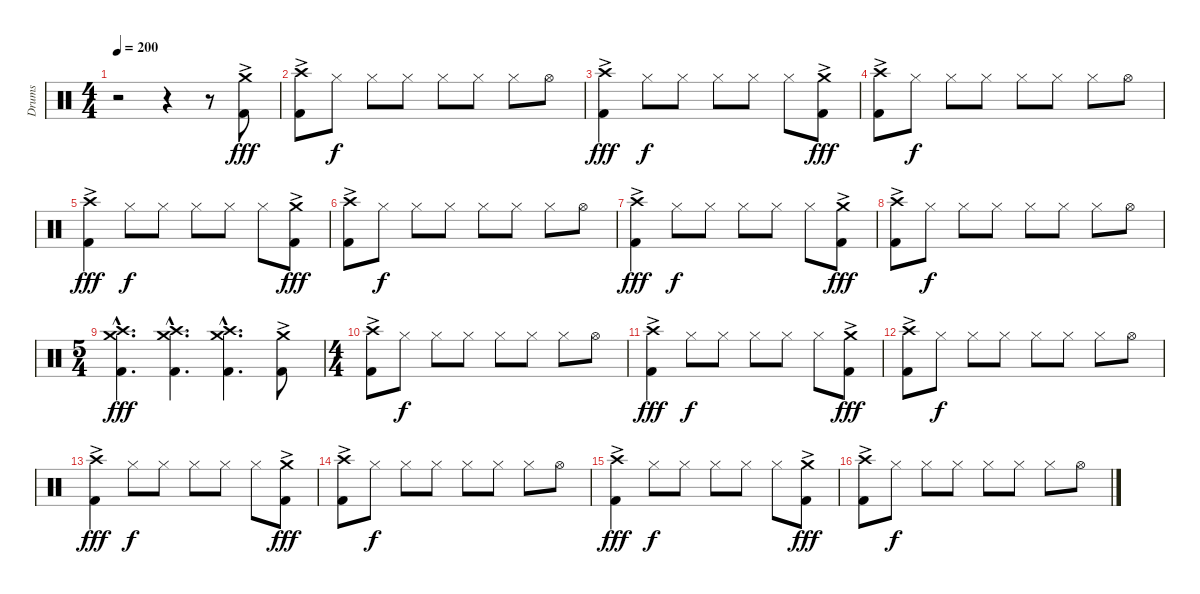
\track ("Drums" "Drums") {instrument percussion}
\staff {score}
\articulation defaults
\ts (4 4)
\tempo 200
\clef neutral
\ks c
r.2{dy fff} r.4 r.8 ("Crash medium (hit)" "Kick (hit) 2"{ac}).8 |
("Crash high (hit)" "Kick (hit) 2"{ac}).8 "Hi-Hat (closed)".8{dy f} "Hi-Hat (closed)".8 "Hi-Hat (closed)".8 "Hi-Hat (closed)".8 "Hi-Hat (closed)".8 "Hi-Hat (closed)".8 "Hi-Hat (open)".8 |
("Crash high (hit)" "Kick (hit) 2"{ac}).4{dy fff} "Hi-Hat (closed)".8{dy f} "Hi-Hat (closed)".8 "Hi-Hat (closed)".8 "Hi-Hat (closed)".8 "Hi-Hat (closed)".8 ("Crash medium (hit)" "Kick (hit) 2"{ac}).8{dy fff} |
("Crash high (hit)" "Kick (hit) 2"{ac}).8 "Hi-Hat (closed)".8{dy f} "Hi-Hat (closed)".8 "Hi-Hat (closed)".8 "Hi-Hat (closed)".8 "Hi-Hat (closed)".8 "Hi-Hat (closed)".8 "Hi-Hat (open)".8 |
("Crash high (hit)" "Kick (hit) 2"{ac}).4{dy fff} "Hi-Hat (closed)".8{dy f} "Hi-Hat (closed)".8 "Hi-Hat (closed)".8 "Hi-Hat (closed)".8 "Hi-Hat (closed)".8 ("Crash medium (hit)" "Kick (hit) 2"{ac}).8{dy fff} |
("Crash high (hit)" "Kick (hit) 2"{ac}).8 "Hi-Hat (closed)".8{dy f} "Hi-Hat (closed)".8 "Hi-Hat (closed)".8 "Hi-Hat (closed)".8 "Hi-Hat (closed)".8 "Hi-Hat (closed)".8 "Hi-Hat (open)".8 |
("Crash high (hit)" "Kick (hit) 2"{ac}).4{dy fff} "Hi-Hat (closed)".8{dy f} "Hi-Hat (closed)".8 "Hi-Hat (closed)".8 "Hi-Hat (closed)".8 "Hi-Hat (closed)".8 ("Crash medium (hit)" "Kick (hit) 2"{ac}).8{dy fff} |
("Crash high (hit)" "Kick (hit) 2"{ac}).8 "Hi-Hat (closed)".8{dy f} "Hi-Hat (closed)".8 "Hi-Hat (closed)".8 "Hi-Hat (closed)".8 "Hi-Hat (closed)".8 "Hi-Hat (closed)".8 "Hi-Hat (open)".8 |
\ts (5 4)
("Crash high (hit)"{hac} "Crash medium (hit)"{hac} "Kick (hit) 2"{hac}).4{d dy fff} ("Crash high (hit)"{hac} "Crash medium (hit)"{hac} "Kick (hit) 2"{hac}).4{d} ("Crash high (hit)"{hac} "Crash medium (hit)"{hac} "Kick (hit) 2"{hac}).4{d} ("Crash medium (hit)" "Kick (hit) 2"{ac}).8 |
\ts (4 4)
("Crash high (hit)" "Kick (hit) 2"{ac}).8 "Hi-Hat (closed)".8{dy f} "Hi-Hat (closed)".8 "Hi-Hat (closed)".8 "Hi-Hat (closed)".8 "Hi-Hat (closed)".8 "Hi-Hat (closed)".8 "Hi-Hat (open)".8 |
("Crash high (hit)" "Kick (hit) 2"{ac}).4{dy fff} "Hi-Hat (closed)".8{dy f} "Hi-Hat (closed)".8 "Hi-Hat (closed)".8 "Hi-Hat (closed)".8 "Hi-Hat (closed)".8 ("Crash medium (hit)" "Kick (hit) 2"{ac}).8{dy fff} |
("Crash high (hit)" "Kick (hit) 2"{ac}).8 "Hi-Hat (closed)".8{dy f} "Hi-Hat (closed)".8 "Hi-Hat (closed)".8 "Hi-Hat (closed)".8 "Hi-Hat (closed)".8 "Hi-Hat (closed)".8 "Hi-Hat (open)".8 |
("Crash high (hit)" "Kick (hit) 2"{ac}).4{dy fff} "Hi-Hat (closed)".8{dy f} "Hi-Hat (closed)".8 "Hi-Hat (closed)".8 "Hi-Hat (closed)".8 "Hi-Hat (closed)".8 ("Crash medium (hit)" "Kick (hit) 2"{ac}).8{dy fff} |
("Crash high (hit)" "Kick (hit) 2"{ac}).8 "Hi-Hat (closed)".8{dy f} "Hi-Hat (closed)".8 "Hi-Hat (closed)".8 "Hi-Hat (closed)".8 "Hi-Hat (closed)".8 "Hi-Hat (closed)".8 "Hi-Hat (open)".8 |
("Crash high (hit)" "Kick (hit) 2"{ac}).4{dy fff} "Hi-Hat (closed)".8{dy f} "Hi-Hat (closed)".8 "Hi-Hat (closed)".8 "Hi-Hat (closed)".8 "Hi-Hat (closed)".8 ("Crash medium (hit)" "Kick (hit) 2"{ac}).8{dy fff} |
("Crash high (hit)" "Kick (hit) 2"{ac}).8 "Hi-Hat (closed)".8{dy f} "Hi-Hat (closed)".8 "Hi-Hat (closed)".8 "Hi-Hat (closed)".8 "Hi-Hat (closed)".8 "Hi-Hat (closed)".8 "Hi-Hat (open)".8
